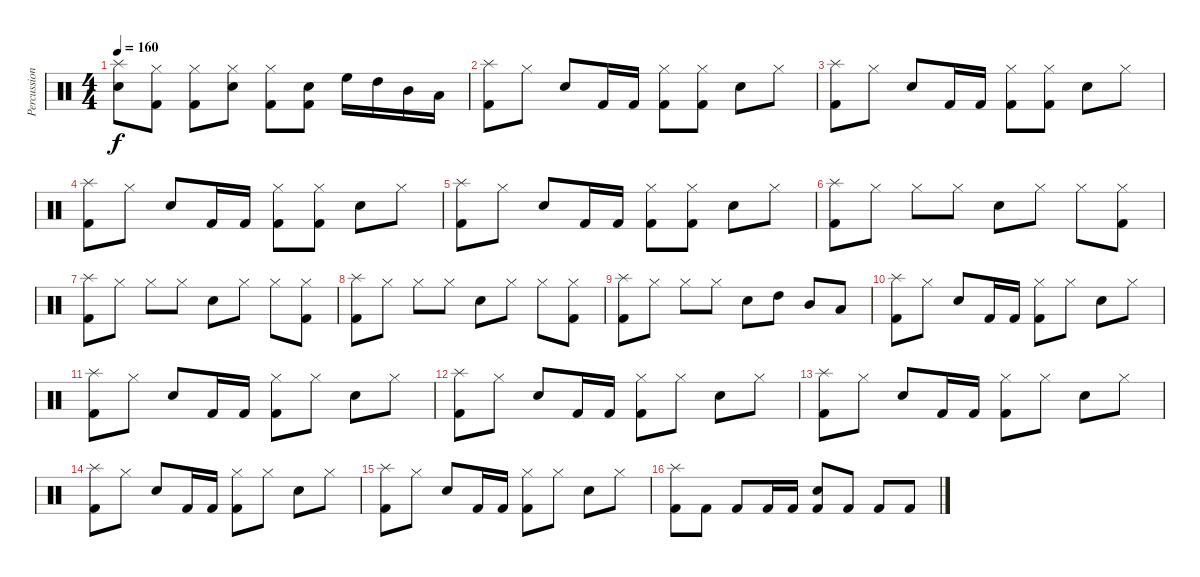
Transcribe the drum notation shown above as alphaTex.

\track ("Percussion" "Percussion") {instrument percussion}
\staff {score}
\articulation defaults
\ts (4 4)
\tempo 160
\clef neutral
\ks c
("Splash (hit)" "Snare (hit) 2").8{dy f} ("Hi-Hat (closed)" "Kick (hit) 2").8 ("Hi-Hat (closed)" "Kick (hit) 2").8 ("Hi-Hat (closed)" "Snare (hit) 2").8 ("Hi-Hat (closed)" "Kick (hit) 2").8 ("Snare (hit) 2" "Kick (hit) 2").8 "High Floor Tom (hit)".16 "High Tom (hit)".16 "Mid Tom (hit)".16 "Low Tom (hit)".16 |
("Splash (hit)" "Kick (hit) 2").8 "Hi-Hat (closed)".8 "Snare (hit) 2".8 "Kick (hit) 2".16 "Kick (hit) 2".16 ("Hi-Hat (closed)" "Kick (hit) 2").8 ("Hi-Hat (closed)" "Kick (hit) 2").8 "Snare (hit) 2".8 "Hi-Hat (closed)".8 |
("Splash (hit)" "Kick (hit) 2").8 "Hi-Hat (closed)".8 "Snare (hit) 2".8 "Kick (hit) 2".16 "Kick (hit) 2".16 ("Hi-Hat (closed)" "Kick (hit) 2").8 ("Hi-Hat (closed)" "Kick (hit) 2").8 "Snare (hit) 2".8 "Hi-Hat (closed)".8 |
("Splash (hit)" "Kick (hit) 2").8 "Hi-Hat (closed)".8 "Snare (hit) 2".8 "Kick (hit) 2".16 "Kick (hit) 2".16 ("Hi-Hat (closed)" "Kick (hit) 2").8 ("Hi-Hat (closed)" "Kick (hit) 2").8 "Snare (hit) 2".8 "Hi-Hat (closed)".8 |
("Splash (hit)" "Kick (hit) 2").8 "Hi-Hat (closed)".8 "Snare (hit) 2".8 "Kick (hit) 2".16 "Kick (hit) 2".16 ("Hi-Hat (closed)" "Kick (hit) 2").8 ("Hi-Hat (closed)" "Kick (hit) 2").8 "Snare (hit) 2".8 "Hi-Hat (closed)".8 |
("Splash (hit)" "Kick (hit) 2").8 "Hi-Hat (closed)".8 "Hi-Hat (closed)".8 "Hi-Hat (closed)".8 "Snare (hit) 2".8 "Hi-Hat (closed)".8 "Hi-Hat (closed)".8 ("Hi-Hat (closed)" "Kick (hit) 2").8 |
("Splash (hit)" "Kick (hit) 2").8 "Hi-Hat (closed)".8 "Hi-Hat (closed)".8 "Hi-Hat (closed)".8 "Snare (hit) 2".8 "Hi-Hat (closed)".8 "Hi-Hat (closed)".8 ("Hi-Hat (closed)" "Kick (hit) 2").8 |
("Splash (hit)" "Kick (hit) 2").8 "Hi-Hat (closed)".8 "Hi-Hat (closed)".8 "Hi-Hat (closed)".8 "Snare (hit) 2".8 "Hi-Hat (closed)".8 "Hi-Hat (closed)".8 ("Hi-Hat (closed)" "Kick (hit) 2").8 |
("Splash (hit)" "Kick (hit) 2").8 "Hi-Hat (closed)".8 "Hi-Hat (closed)".8 "Hi-Hat (closed)".8 "Snare (hit) 2".8 "High Tom (hit)".8 "Mid Tom (hit)".8 "Low Tom (hit)".8 |
("Splash (hit)" "Kick (hit) 2").8 "Hi-Hat (closed)".8 "Snare (hit) 2".8 "Kick (hit) 2".16 "Kick (hit) 2".16 ("Hi-Hat (closed)" "Kick (hit) 2").8 "Hi-Hat (closed)".8 "Snare (hit) 2".8 "Hi-Hat (closed)".8 |
("Splash (hit)" "Kick (hit) 2").8 "Hi-Hat (closed)".8 "Snare (hit) 2".8 "Kick (hit) 2".16 "Kick (hit) 2".16 ("Hi-Hat (closed)" "Kick (hit) 2").8 "Hi-Hat (closed)".8 "Snare (hit) 2".8 "Hi-Hat (closed)".8 |
("Splash (hit)" "Kick (hit) 2").8 "Hi-Hat (closed)".8 "Snare (hit) 2".8 "Kick (hit) 2".16 "Kick (hit) 2".16 ("Hi-Hat (closed)" "Kick (hit) 2").8 "Hi-Hat (closed)".8 "Snare (hit) 2".8 "Hi-Hat (closed)".8 |
("Splash (hit)" "Kick (hit) 2").8 "Hi-Hat (closed)".8 "Snare (hit) 2".8 "Kick (hit) 2".16 "Kick (hit) 2".16 ("Hi-Hat (closed)" "Kick (hit) 2").8 "Hi-Hat (closed)".8 "Snare (hit) 2".8 "Hi-Hat (closed)".8 |
("Splash (hit)" "Kick (hit) 2").8 "Hi-Hat (closed)".8 "Snare (hit) 2".8 "Kick (hit) 2".16 "Kick (hit) 2".16 ("Hi-Hat (closed)" "Kick (hit) 2").8 "Hi-Hat (closed)".8 "Snare (hit) 2".8 "Hi-Hat (closed)".8 |
("Splash (hit)" "Kick (hit) 2").8 "Hi-Hat (closed)".8 "Snare (hit) 2".8 "Kick (hit) 2".16 "Kick (hit) 2".16 ("Hi-Hat (closed)" "Kick (hit) 2").8 "Hi-Hat (closed)".8 "Snare (hit) 2".8 "Hi-Hat (closed)".8 |
("Splash (hit)" "Kick (hit) 2").8 "Kick (hit) 2".8 "Kick (hit) 2".8 "Kick (hit) 2".16 "Kick (hit) 2".16 ("Snare (hit) 2" "Kick (hit) 2").8 "Kick (hit) 2".8 "Kick (hit) 2".8 "Kick (hit) 2".8
